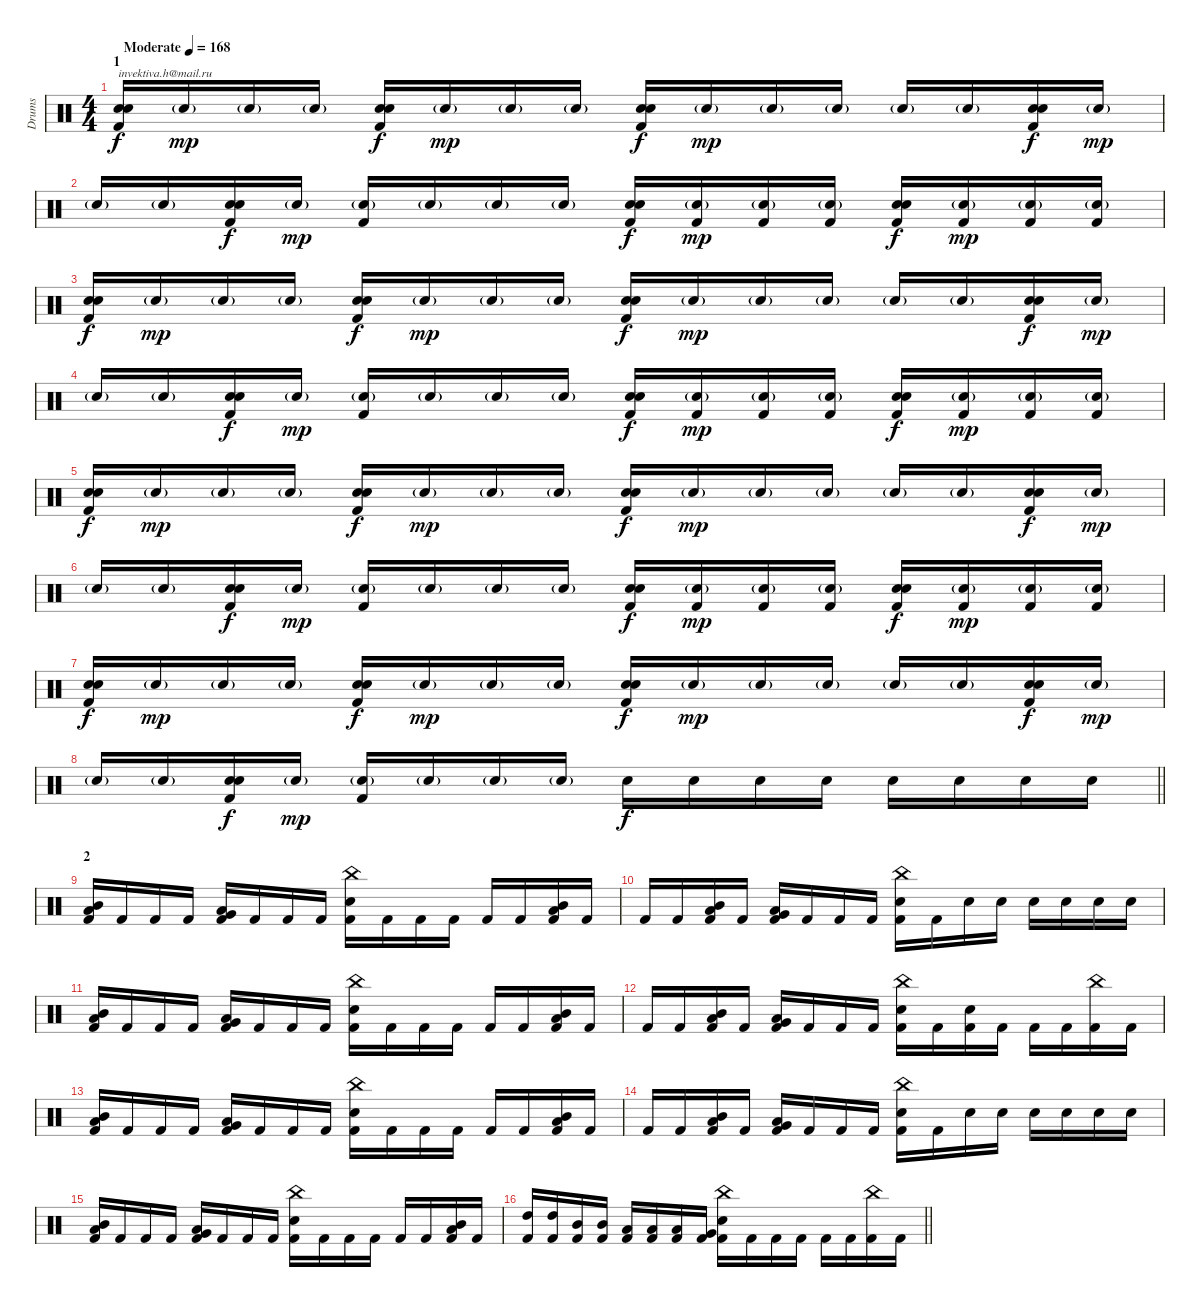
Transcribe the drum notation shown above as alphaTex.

\track ("Drums" "Drums") {instrument percussion}
\staff {score}
\articulation defaults
\ts (4 4)
\section ("" "1")
\tempo (168 "Moderate")
\clef neutral
\ks c
("Electric Snare (hit)" "Electric Snare (hit)" "Kick (hit) 2").16{txt "invektiva.h@mail.ru" dy f} "Electric Snare (hit)"{g}.16{dy mp} "Electric Snare (hit)"{g}.16 "Electric Snare (hit)"{g}.16 ("Electric Snare (hit)" "Electric Snare (hit)" "Kick (hit) 2").16{dy f} "Electric Snare (hit)"{g}.16{dy mp} "Electric Snare (hit)"{g}.16 "Electric Snare (hit)"{g}.16 ("Electric Snare (hit)" "Electric Snare (hit)" "Kick (hit) 2").16{dy f} "Electric Snare (hit)"{g}.16{dy mp} "Electric Snare (hit)"{g}.16 "Electric Snare (hit)"{g}.16 "Electric Snare (hit)"{g}.16 "Electric Snare (hit)"{g}.16 ("Electric Snare (hit)" "Electric Snare (hit)" "Kick (hit) 2").16{dy f} "Electric Snare (hit)"{g}.16{dy mp} |
"Electric Snare (hit)"{g}.16 "Electric Snare (hit)"{g}.16 ("Electric Snare (hit)" "Electric Snare (hit)" "Kick (hit) 2").16{dy f} "Electric Snare (hit)"{g}.16{dy mp} ("Electric Snare (hit)"{g} "Kick (hit) 2").16 "Electric Snare (hit)"{g}.16 "Electric Snare (hit)"{g}.16 "Electric Snare (hit)"{g}.16 ("Electric Snare (hit)" "Electric Snare (hit)" "Kick (hit) 2").16{dy f} ("Electric Snare (hit)"{g} "Kick (hit) 2").16{dy mp} ("Electric Snare (hit)"{g} "Kick (hit) 2").16 ("Electric Snare (hit)"{g} "Kick (hit) 2").16 ("Electric Snare (hit)" "Electric Snare (hit)" "Kick (hit) 2").16{dy f} ("Electric Snare (hit)"{g} "Kick (hit) 2").16{dy mp} ("Electric Snare (hit)"{g} "Kick (hit) 2").16 ("Electric Snare (hit)"{g} "Kick (hit) 2").16 |
("Electric Snare (hit)" "Electric Snare (hit)" "Kick (hit) 2").16{dy f} "Electric Snare (hit)"{g}.16{dy mp} "Electric Snare (hit)"{g}.16 "Electric Snare (hit)"{g}.16 ("Electric Snare (hit)" "Electric Snare (hit)" "Kick (hit) 2").16{dy f} "Electric Snare (hit)"{g}.16{dy mp} "Electric Snare (hit)"{g}.16 "Electric Snare (hit)"{g}.16 ("Electric Snare (hit)" "Electric Snare (hit)" "Kick (hit) 2").16{dy f} "Electric Snare (hit)"{g}.16{dy mp} "Electric Snare (hit)"{g}.16 "Electric Snare (hit)"{g}.16 "Electric Snare (hit)"{g}.16 "Electric Snare (hit)"{g}.16 ("Electric Snare (hit)" "Electric Snare (hit)" "Kick (hit) 2").16{dy f} "Electric Snare (hit)"{g}.16{dy mp} |
"Electric Snare (hit)"{g}.16 "Electric Snare (hit)"{g}.16 ("Electric Snare (hit)" "Electric Snare (hit)" "Kick (hit) 2").16{dy f} "Electric Snare (hit)"{g}.16{dy mp} ("Electric Snare (hit)"{g} "Kick (hit) 2").16 "Electric Snare (hit)"{g}.16 "Electric Snare (hit)"{g}.16 "Electric Snare (hit)"{g}.16 ("Electric Snare (hit)" "Electric Snare (hit)" "Kick (hit) 2").16{dy f} ("Electric Snare (hit)"{g} "Kick (hit) 2").16{dy mp} ("Electric Snare (hit)"{g} "Kick (hit) 2").16 ("Electric Snare (hit)"{g} "Kick (hit) 2").16 ("Electric Snare (hit)" "Electric Snare (hit)" "Kick (hit) 2").16{dy f} ("Electric Snare (hit)"{g} "Kick (hit) 2").16{dy mp} ("Electric Snare (hit)"{g} "Kick (hit) 2").16 ("Electric Snare (hit)"{g} "Kick (hit) 2").16 |
("Electric Snare (hit)" "Electric Snare (hit)" "Kick (hit) 2").16{dy f} "Electric Snare (hit)"{g}.16{dy mp} "Electric Snare (hit)"{g}.16 "Electric Snare (hit)"{g}.16 ("Electric Snare (hit)" "Electric Snare (hit)" "Kick (hit) 2").16{dy f} "Electric Snare (hit)"{g}.16{dy mp} "Electric Snare (hit)"{g}.16 "Electric Snare (hit)"{g}.16 ("Electric Snare (hit)" "Electric Snare (hit)" "Kick (hit) 2").16{dy f} "Electric Snare (hit)"{g}.16{dy mp} "Electric Snare (hit)"{g}.16 "Electric Snare (hit)"{g}.16 "Electric Snare (hit)"{g}.16 "Electric Snare (hit)"{g}.16 ("Electric Snare (hit)" "Electric Snare (hit)" "Kick (hit) 2").16{dy f} "Electric Snare (hit)"{g}.16{dy mp} |
"Electric Snare (hit)"{g}.16 "Electric Snare (hit)"{g}.16 ("Electric Snare (hit)" "Electric Snare (hit)" "Kick (hit) 2").16{dy f} "Electric Snare (hit)"{g}.16{dy mp} ("Electric Snare (hit)"{g} "Kick (hit) 2").16 "Electric Snare (hit)"{g}.16 "Electric Snare (hit)"{g}.16 "Electric Snare (hit)"{g}.16 ("Electric Snare (hit)" "Electric Snare (hit)" "Kick (hit) 2").16{dy f} ("Electric Snare (hit)"{g} "Kick (hit) 2").16{dy mp} ("Electric Snare (hit)"{g} "Kick (hit) 2").16 ("Electric Snare (hit)"{g} "Kick (hit) 2").16 ("Electric Snare (hit)" "Electric Snare (hit)" "Kick (hit) 2").16{dy f} ("Electric Snare (hit)"{g} "Kick (hit) 2").16{dy mp} ("Electric Snare (hit)"{g} "Kick (hit) 2").16 ("Electric Snare (hit)"{g} "Kick (hit) 2").16 |
("Electric Snare (hit)" "Electric Snare (hit)" "Kick (hit) 2").16{dy f} "Electric Snare (hit)"{g}.16{dy mp} "Electric Snare (hit)"{g}.16 "Electric Snare (hit)"{g}.16 ("Electric Snare (hit)" "Electric Snare (hit)" "Kick (hit) 2").16{dy f} "Electric Snare (hit)"{g}.16{dy mp} "Electric Snare (hit)"{g}.16 "Electric Snare (hit)"{g}.16 ("Electric Snare (hit)" "Electric Snare (hit)" "Kick (hit) 2").16{dy f} "Electric Snare (hit)"{g}.16{dy mp} "Electric Snare (hit)"{g}.16 "Electric Snare (hit)"{g}.16 "Electric Snare (hit)"{g}.16 "Electric Snare (hit)"{g}.16 ("Electric Snare (hit)" "Electric Snare (hit)" "Kick (hit) 2").16{dy f} "Electric Snare (hit)"{g}.16{dy mp} |
\barLineRight lightlight "Electric Snare (hit)"{g}.16 "Electric Snare (hit)"{g}.16
("Electric Snare (hit)" "Electric Snare (hit)" "Kick (hit) 2").16{dy f} "Electric Snare (hit)"{g}.16{dy mp} ("Electric Snare (hit)"{g} "Kick (hit) 2").16 "Electric Snare (hit)"{g}.16 "Electric Snare (hit)"{g}.16 "Electric Snare (hit)"{g}.16 "Electric Snare (hit)".16{dy f} "Electric Snare (hit)".16 "Electric Snare (hit)".16 "Electric Snare (hit)".16 "Electric Snare (hit)".16 "Electric Snare (hit)".16 "Electric Snare (hit)".16 "Electric Snare (hit)".16 |
\section ("" "2")
("Mid Tom (hit)" "Low Tom (hit)" "Kick (hit) 2").16 "Kick (hit) 2".16 "Kick (hit) 2".16 "Kick (hit) 2".16 ("Low Tom (hit)" "Very Low Tom (hit)" "Kick (hit) 2").16 "Kick (hit) 2".16 "Kick (hit) 2".16 "Kick (hit) 2".16 ("Electric Snare (hit)" "Kick (hit) 2" "China (hit)").16 "Kick (hit) 2".16 "Kick (hit) 2".16 "Kick (hit) 2".16 "Kick (hit) 2".16 "Kick (hit) 2".16 ("Mid Tom (hit)" "Low Tom (hit)" "Kick (hit) 2").16 "Kick (hit) 2".16 |
"Kick (hit) 2".16 "Kick (hit) 2".16 ("Mid Tom (hit)" "Low Tom (hit)" "Kick (hit) 2").16 "Kick (hit) 2".16 ("Low Tom (hit)" "Very Low Tom (hit)" "Kick (hit) 2").16 "Kick (hit) 2".16 "Kick (hit) 2".16 "Kick (hit) 2".16 ("Electric Snare (hit)" "Kick (hit) 2" "China (hit)").16 "Kick (hit) 2".16 "Electric Snare (hit)".16 "Electric Snare (hit)".16 "Electric Snare (hit)".16 "Electric Snare (hit)".16 "Electric Snare (hit)".16 "Electric Snare (hit)".16 |
("Mid Tom (hit)" "Low Tom (hit)" "Kick (hit) 2").16 "Kick (hit) 2".16 "Kick (hit) 2".16 "Kick (hit) 2".16 ("Low Tom (hit)" "Very Low Tom (hit)" "Kick (hit) 2").16 "Kick (hit) 2".16 "Kick (hit) 2".16 "Kick (hit) 2".16 ("Electric Snare (hit)" "Kick (hit) 2" "China (hit)").16 "Kick (hit) 2".16 "Kick (hit) 2".16 "Kick (hit) 2".16 "Kick (hit) 2".16 "Kick (hit) 2".16 ("Mid Tom (hit)" "Low Tom (hit)" "Kick (hit) 2").16 "Kick (hit) 2".16 |
"Kick (hit) 2".16 "Kick (hit) 2".16 ("Mid Tom (hit)" "Low Tom (hit)" "Kick (hit) 2").16 "Kick (hit) 2".16 ("Low Tom (hit)" "Very Low Tom (hit)" "Kick (hit) 2").16 "Kick (hit) 2".16 "Kick (hit) 2".16 "Kick (hit) 2".16 ("Electric Snare (hit)" "Kick (hit) 2" "China (hit)").16 "Kick (hit) 2".16 ("Electric Snare (hit)" "Kick (hit) 2").16 "Kick (hit) 2".16 "Kick (hit) 2".16 "Kick (hit) 2".16 ("Kick (hit) 2" "China (hit)").16 "Kick (hit) 2".16 |
("Mid Tom (hit)" "Low Tom (hit)" "Kick (hit) 2").16 "Kick (hit) 2".16 "Kick (hit) 2".16 "Kick (hit) 2".16 ("Low Tom (hit)" "Very Low Tom (hit)" "Kick (hit) 2").16 "Kick (hit) 2".16 "Kick (hit) 2".16 "Kick (hit) 2".16 ("Electric Snare (hit)" "Kick (hit) 2" "China (hit)").16 "Kick (hit) 2".16 "Kick (hit) 2".16 "Kick (hit) 2".16 "Kick (hit) 2".16 "Kick (hit) 2".16 ("Mid Tom (hit)" "Low Tom (hit)" "Kick (hit) 2").16 "Kick (hit) 2".16 |
"Kick (hit) 2".16 "Kick (hit) 2".16 ("Mid Tom (hit)" "Low Tom (hit)" "Kick (hit) 2").16 "Kick (hit) 2".16 ("Low Tom (hit)" "Very Low Tom (hit)" "Kick (hit) 2").16 "Kick (hit) 2".16 "Kick (hit) 2".16 "Kick (hit) 2".16 ("Electric Snare (hit)" "Kick (hit) 2" "China (hit)").16 "Kick (hit) 2".16 "Electric Snare (hit)".16 "Electric Snare (hit)".16 "Electric Snare (hit)".16 "Electric Snare (hit)".16 "Electric Snare (hit)".16 "Electric Snare (hit)".16 |
("Mid Tom (hit)" "Low Tom (hit)" "Kick (hit) 2").16 "Kick (hit) 2".16 "Kick (hit) 2".16 "Kick (hit) 2".16 ("Low Tom (hit)" "Very Low Tom (hit)" "Kick (hit) 2").16 "Kick (hit) 2".16 "Kick (hit) 2".16 "Kick (hit) 2".16 ("Electric Snare (hit)" "Kick (hit) 2" "China (hit)").16 "Kick (hit) 2".16 "Kick (hit) 2".16 "Kick (hit) 2".16 "Kick (hit) 2".16 "Kick (hit) 2".16 ("Mid Tom (hit)" "Low Tom (hit)" "Kick (hit) 2").16 "Kick (hit) 2".16 |
\barLineRight lightlight
("High Tom (hit)" "Kick (hit) 2").16 ("High Tom (hit)" "Kick (hit) 2").16 ("Mid Tom (hit)" "Kick (hit) 2").16 ("Mid Tom (hit)" "Kick (hit) 2").16 ("Low Tom (hit)" "Kick (hit) 2").16 ("Low Tom (hit)" "Kick (hit) 2").16 ("Low Tom (hit)" "Kick (hit) 2").16 ("Very Low Tom (hit)" "Kick (hit) 2").16 ("Electric Snare (hit)" "Kick (hit) 2" "China (hit)").16 "Kick (hit) 2".16 "Kick (hit) 2".16 "Kick (hit) 2".16 "Kick (hit) 2".16 "Kick (hit) 2".16 ("Kick (hit) 2" "China (hit)").16 "Kick (hit) 2".16
